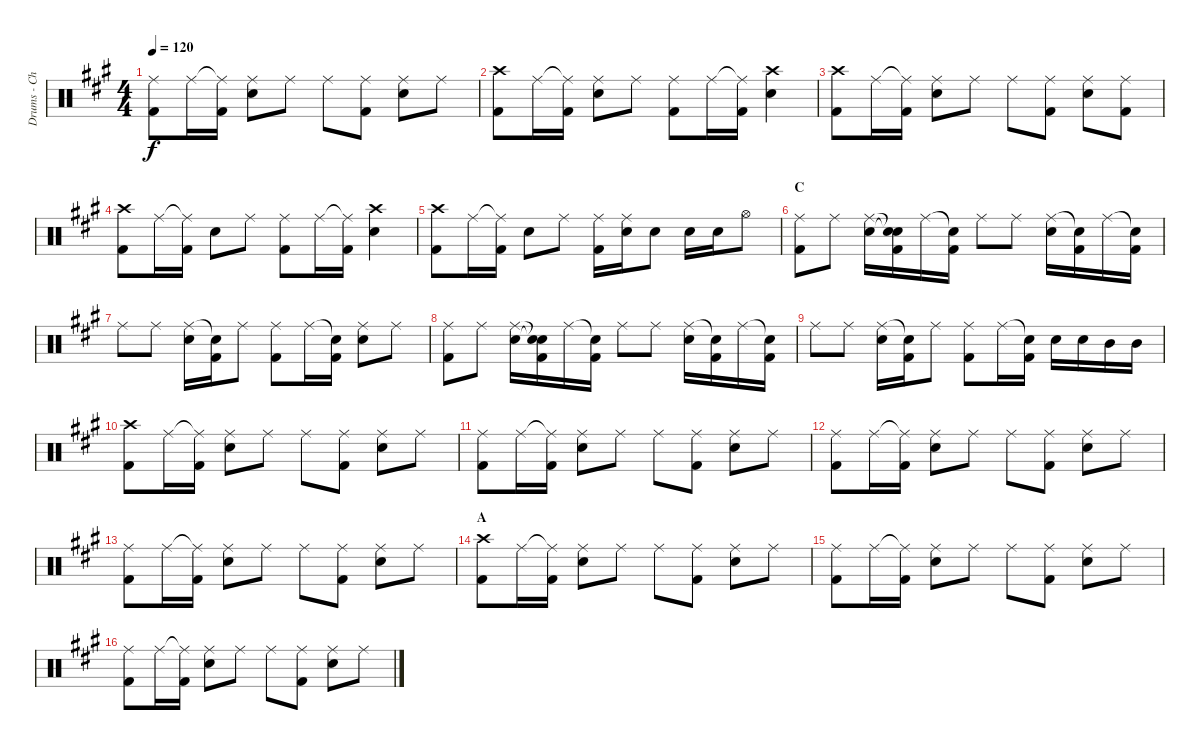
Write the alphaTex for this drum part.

\track ("Drums - Chad S" "Drums - Ch") {instrument percussion}
\staff {score}
\articulation defaults
\ts (4 4)
\tempo 120
\clef neutral
\ks f#minor
("Ride (middle)" "Kick (hit) 2").8{dy f} "Ride (middle)".16 ("Ride (middle)"{t} "Kick (hit) 2").16 ("Ride (middle)" "Snare (hit) 2").8 "Ride (middle)".8 "Ride (middle)".8 ("Ride (middle)" "Kick (hit) 2").8 ("Ride (middle)" "Snare (hit) 2").8 "Ride (middle)".8 |
("Crash high (hit)" "Kick (hit) 2").8 "Ride (middle)".16 ("Ride (middle)"{t} "Kick (hit) 2").16 ("Ride (middle)" "Snare (hit) 2").8 "Ride (middle)".8 ("Ride (middle)" "Kick (hit) 2").8 "Ride (middle)".16 ("Ride (middle)"{t} "Kick (hit) 2").16 ("Crash high (hit)" "Snare (hit) 2").4 |
("Crash high (hit)" "Kick (hit) 2").8 "Ride (middle)".16 ("Ride (middle)"{t} "Kick (hit) 2").16 ("Ride (middle)" "Snare (hit) 2").8 "Ride (middle)".8 "Ride (middle)".8 ("Ride (middle)" "Kick (hit) 2").8 ("Ride (middle)" "Snare (hit) 2").8 ("Ride (middle)" "Kick (hit) 2").8 |
("Crash high (hit)" "Kick (hit) 2").8 "Ride (middle)".16 ("Ride (middle)"{t} "Kick (hit) 2").16 "Snare (hit) 2".8 "Ride (middle)".8 ("Ride (middle)" "Kick (hit) 2").8 "Ride (middle)".16 ("Ride (middle)"{t} "Kick (hit) 2").16 ("Crash high (hit)" "Snare (hit) 2").4 |
("Crash high (hit)" "Kick (hit) 2").8 "Ride (middle)".16 ("Ride (middle)"{t} "Kick (hit) 2").16 "Snare (hit) 2".8 "Ride (middle)".8 ("Ride (middle)" "Kick (hit) 2").16 ("Ride (middle)" "Snare (hit) 2").16 "Snare (hit) 2".8 "Snare (hit) 2".16 "Snare (hit) 2".16 "Hi-Hat (open)".8 |
\section ("" "C")
("Ride (middle)" "Kick (hit) 2").8 "Ride (middle)".8 ("Ride (middle)" "Snare (hit) 2").16 ("Snare (hit)"{t} "Snare (hit)"{t} "Kick (hit) 2").16 "Ride (middle)".16 ("Snare (hit)"{t} "Kick (hit) 2").16 "Ride (middle)".8 "Ride (middle)".8 ("Ride (middle)" "Snare (hit) 2").16 ("Snare (hit)"{t} "Kick (hit) 2").16 "Ride (middle)".16 ("Snare (hit)"{t} "Kick (hit) 2").16 |
"Ride (middle)".8 "Ride (middle)".8 ("Ride (middle)" "Snare (hit) 2").16 ("Snare (hit)"{t} "Kick (hit) 2").16 "Ride (middle)".8 ("Ride (middle)" "Kick (hit) 2").8 "Ride (middle)".16 ("Snare (hit)"{t} "Kick (hit) 2").16 ("Ride (middle)" "Snare (hit) 2").8 "Ride (middle)".8 |
("Ride (middle)" "Kick (hit) 2").8 "Ride (middle)".8 ("Ride (middle)" "Snare (hit) 2").16 ("Snare (hit)"{t} "Snare (hit)"{t} "Kick (hit) 2").16 "Ride (middle)".16 ("Snare (hit)"{t} "Kick (hit) 2").16 "Ride (middle)".8 "Ride (middle)".8 ("Ride (middle)" "Snare (hit) 2").16 ("Snare (hit)"{t} "Kick (hit) 2").16 "Ride (middle)".16 ("Snare (hit)"{t} "Kick (hit) 2").16 |
"Ride (middle)".8 "Ride (middle)".8 ("Ride (middle)" "Snare (hit) 2").16 ("Snare (hit)"{t} "Kick (hit) 2").16 "Ride (middle)".8 ("Ride (middle)" "Kick (hit) 2").8 "Ride (middle)".16 ("Snare (hit)"{t} "Kick (hit) 2").16 "Snare (hit) 2".16 "Snare (hit) 2".16 "Mid Tom (hit)".16 "Mid Tom (hit)".16 |
("Crash high (hit)" "Kick (hit) 2").8 "Ride (middle)".16 ("Ride (middle)"{t} "Kick (hit) 2").16 ("Ride (middle)" "Snare (hit) 2").8 "Ride (middle)".8 "Ride (middle)".8 ("Ride (middle)" "Kick (hit) 2").8 ("Ride (middle)" "Snare (hit) 2").8 "Ride (middle)".8 |
("Ride (middle)" "Kick (hit) 2").8 "Ride (middle)".16 ("Ride (middle)"{t} "Kick (hit) 2").16 ("Ride (middle)" "Snare (hit) 2").8 "Ride (middle)".8 "Ride (middle)".8 ("Ride (middle)" "Kick (hit) 2").8 ("Ride (middle)" "Snare (hit) 2").8 "Ride (middle)".8 |
("Ride (middle)" "Kick (hit) 2").8 "Ride (middle)".16 ("Ride (middle)"{t} "Kick (hit) 2").16 ("Ride (middle)" "Snare (hit) 2").8 "Ride (middle)".8 "Ride (middle)".8 ("Ride (middle)" "Kick (hit) 2").8 ("Ride (middle)" "Snare (hit) 2").8 "Ride (middle)".8 |
("Ride (middle)" "Kick (hit) 2").8 "Ride (middle)".16 ("Ride (middle)"{t} "Kick (hit) 2").16 ("Ride (middle)" "Snare (hit) 2").8 "Ride (middle)".8 "Ride (middle)".8 ("Ride (middle)" "Kick (hit) 2").8 ("Ride (middle)" "Snare (hit) 2").8 "Ride (middle)".8 |
\section ("" "A")
("Crash high (hit)" "Kick (hit) 2").8 "Ride (middle)".16 ("Ride (middle)"{t} "Kick (hit) 2").16 ("Ride (middle)" "Snare (hit) 2").8 "Ride (middle)".8 "Ride (middle)".8 ("Ride (middle)" "Kick (hit) 2").8 ("Ride (middle)" "Snare (hit) 2").8 "Ride (middle)".8 |
("Ride (middle)" "Kick (hit) 2").8 "Ride (middle)".16 ("Ride (middle)"{t} "Kick (hit) 2").16 ("Ride (middle)" "Snare (hit) 2").8 "Ride (middle)".8 "Ride (middle)".8 ("Ride (middle)" "Kick (hit) 2").8 ("Ride (middle)" "Snare (hit) 2").8 "Ride (middle)".8 |
("Ride (middle)" "Kick (hit) 2").8 "Ride (middle)".16 ("Ride (middle)"{t} "Kick (hit) 2").16 ("Ride (middle)" "Snare (hit) 2").8 "Ride (middle)".8 "Ride (middle)".8 ("Ride (middle)" "Kick (hit) 2").8 ("Ride (middle)" "Snare (hit) 2").8 "Ride (middle)".8
